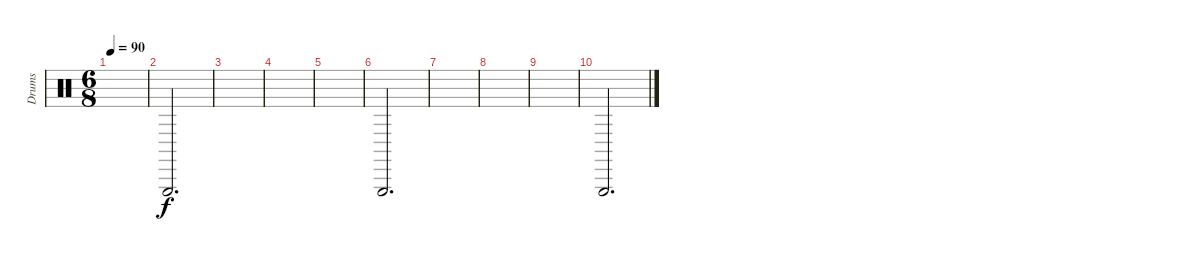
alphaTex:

\track ("Drums" "Drums") {instrument percussion}
\staff {score}
\articulation defaults
\ts (6 8)
\tempo 90
\clef neutral
\ks c
|
"Triangle (hit)".2{d} |
|
|
|
"Triangle (hit)".2{d} |
|
|
|
"Triangle (hit)".2{d}
